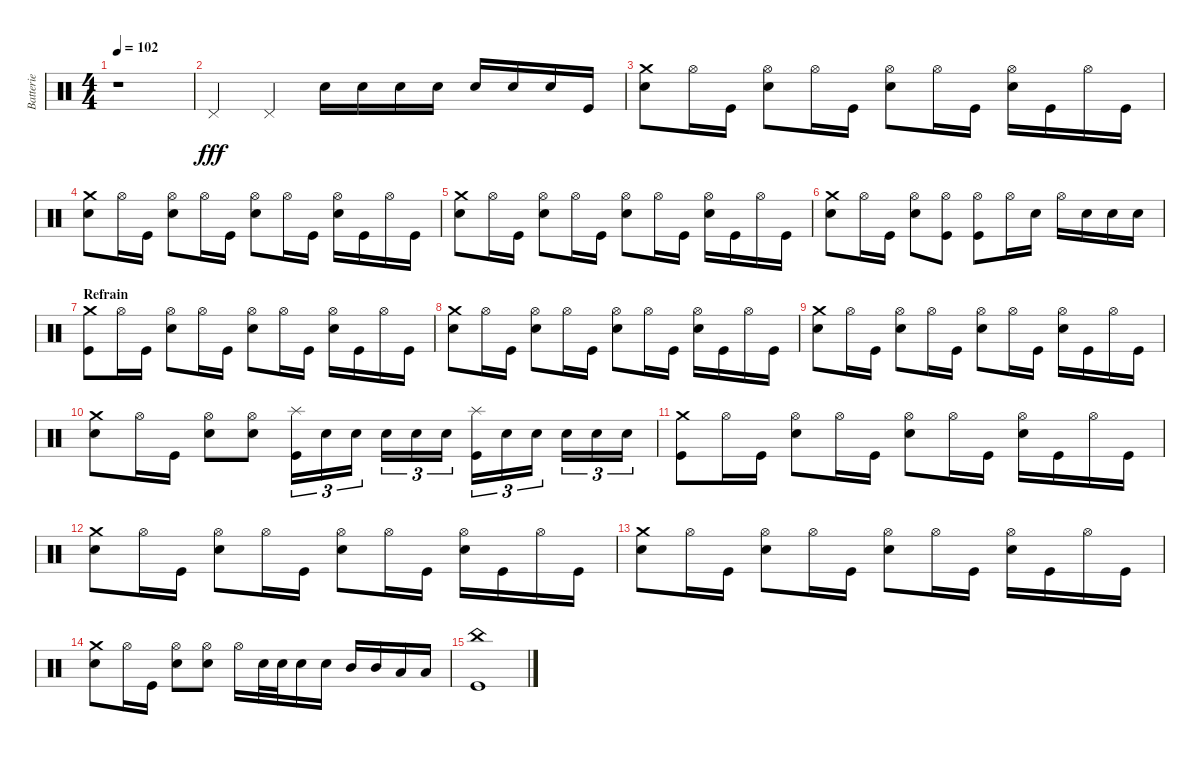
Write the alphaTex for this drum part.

\track ("Batterie" "Batterie") {instrument percussion}
\staff {score}
\articulation defaults
\ts (4 4)
\tempo 102
\clef neutral
\ks c
r.1{dy fff} |
"Pedal Hi-Hat (hit)".4 "Pedal Hi-Hat (hit)".4 "Metronome (bell)".16 "Metronome (bell)".16 "Metronome (bell)".16 "Metronome (bell)".16 "Metronome (bell)".16 "Metronome (bell)".16 "Metronome (bell)".16 "Kick (hit)".16 |
("Crash medium (hit)" "Metronome (bell)").8 "Hi-Hat (open)".16 "Kick (hit)".16 ("Hi-Hat (open)" "Metronome (bell)").8 "Hi-Hat (open)".16 "Kick (hit)".16 ("Hi-Hat (open)" "Metronome (bell)").8 "Hi-Hat (open)".16 "Kick (hit)".16 ("Hi-Hat (open)" "Metronome (bell)").16 "Kick (hit)".16 "Hi-Hat (open)".16 "Kick (hit)".16 |
("Crash medium (hit)" "Metronome (bell)").8 "Hi-Hat (open)".16 "Kick (hit)".16 ("Hi-Hat (open)" "Metronome (bell)").8 "Hi-Hat (open)".16 "Kick (hit)".16 ("Hi-Hat (open)" "Metronome (bell)").8 "Hi-Hat (open)".16 "Kick (hit)".16 ("Hi-Hat (open)" "Metronome (bell)").16 "Kick (hit)".16 "Hi-Hat (open)".16 "Kick (hit)".16 |
("Crash medium (hit)" "Metronome (bell)").8 "Hi-Hat (open)".16 "Kick (hit)".16 ("Hi-Hat (open)" "Metronome (bell)").8 "Hi-Hat (open)".16 "Kick (hit)".16 ("Hi-Hat (open)" "Metronome (bell)").8 "Hi-Hat (open)".16 "Kick (hit)".16 ("Hi-Hat (open)" "Metronome (bell)").16 "Kick (hit)".16 "Hi-Hat (open)".16 "Kick (hit)".16 |
("Crash medium (hit)" "Metronome (bell)").8 "Hi-Hat (open)".16 "Kick (hit)".16 ("Hi-Hat (open)" "Metronome (bell)").8 ("Hi-Hat (open)" "Kick (hit)").8 ("Hi-Hat (open)" "Kick (hit)").8 "Hi-Hat (open)".16 "Metronome (bell)".16 "Hi-Hat (open)".16 "Metronome (bell)".16 "Metronome (bell)".16 "Metronome (bell)".16 |
\section ("" "Refrain")
("Crash medium (hit)" "Kick (hit)").8 "Hi-Hat (open)".16 "Kick (hit)".16 ("Hi-Hat (open)" "Metronome (bell)").8 "Hi-Hat (open)".16 "Kick (hit)".16 ("Hi-Hat (open)" "Metronome (bell)").8 "Hi-Hat (open)".16 "Kick (hit)".16 ("Hi-Hat (open)" "Metronome (bell)").16 "Kick (hit)".16 "Hi-Hat (open)".16 "Kick (hit)".16 |
("Crash medium (hit)" "Metronome (bell)").8 "Hi-Hat (open)".16 "Kick (hit)".16 ("Hi-Hat (open)" "Metronome (bell)").8 "Hi-Hat (open)".16 "Kick (hit)".16 ("Hi-Hat (open)" "Metronome (bell)").8 "Hi-Hat (open)".16 "Kick (hit)".16 ("Hi-Hat (open)" "Metronome (bell)").16 "Kick (hit)".16 "Hi-Hat (open)".16 "Kick (hit)".16 |
("Crash medium (hit)" "Metronome (bell)").8 "Hi-Hat (open)".16 "Kick (hit)".16 ("Hi-Hat (open)" "Metronome (bell)").8 "Hi-Hat (open)".16 "Kick (hit)".16 ("Hi-Hat (open)" "Metronome (bell)").8 "Hi-Hat (open)".16 "Kick (hit)".16 ("Hi-Hat (open)" "Metronome (bell)").16 "Kick (hit)".16 "Hi-Hat (open)".16 "Kick (hit)".16 |
("Crash medium (hit)" "Metronome (bell)").8 "Hi-Hat (open)".16 "Kick (hit)".16 ("Hi-Hat (open)" "Metronome (bell)").8 ("Hi-Hat (open)" "Metronome (bell)").8 ("Splash (hit)" "Kick (hit)").16{tu (3 2)} "Metronome (bell)".16{tu (3 2)} "Metronome (bell)".16{tu (3 2)} "Metronome (bell)".16{tu (3 2)} "Metronome (bell)".16{tu (3 2)} "Metronome (bell)".16{tu (3 2)} ("Splash (hit)" "Kick (hit)").16{tu (3 2)} "Metronome (bell)".16{tu (3 2)} "Metronome (bell)".16{tu (3 2)} "Metronome (bell)".16{tu (3 2)} "Metronome (bell)".16{tu (3 2)} "Metronome (bell)".16{tu (3 2)} |
("Crash medium (hit)" "Kick (hit)").8 "Hi-Hat (open)".16 "Kick (hit)".16 ("Hi-Hat (open)" "Metronome (bell)").8 "Hi-Hat (open)".16 "Kick (hit)".16 ("Hi-Hat (open)" "Metronome (bell)").8 "Hi-Hat (open)".16 "Kick (hit)".16 ("Hi-Hat (open)" "Metronome (bell)").16 "Kick (hit)".16 "Hi-Hat (open)".16 "Kick (hit)".16 |
("Crash medium (hit)" "Metronome (bell)").8 "Hi-Hat (open)".16 "Kick (hit)".16 ("Hi-Hat (open)" "Metronome (bell)").8 "Hi-Hat (open)".16 "Kick (hit)".16 ("Hi-Hat (open)" "Metronome (bell)").8 "Hi-Hat (open)".16 "Kick (hit)".16 ("Hi-Hat (open)" "Metronome (bell)").16 "Kick (hit)".16 "Hi-Hat (open)".16 "Kick (hit)".16 |
("Crash medium (hit)" "Metronome (bell)").8 "Hi-Hat (open)".16 "Kick (hit)".16 ("Hi-Hat (open)" "Metronome (bell)").8 "Hi-Hat (open)".16 "Kick (hit)".16 ("Hi-Hat (open)" "Metronome (bell)").8 "Hi-Hat (open)".16 "Kick (hit)".16 ("Hi-Hat (open)" "Metronome (bell)").16 "Kick (hit)".16 "Hi-Hat (open)".16 "Kick (hit)".16 |
("Crash medium (hit)" "Metronome (bell)").8 "Hi-Hat (open)".16 "Kick (hit)".16 ("Hi-Hat (open)" "Metronome (bell)").8 ("Hi-Hat (open)" "Metronome (bell)").8 "Hi-Hat (open)".16 "Metronome (bell)".32 "Metronome (bell)".32 "Metronome (bell)".16 "Metronome (bell)".16 "Mid Tom (hit)".16 "Mid Tom (hit)".16 "Low Tom (hit)".16 "Low Tom (hit)".16 |
("China (hit)" "Kick (hit)").1{volume 3}
